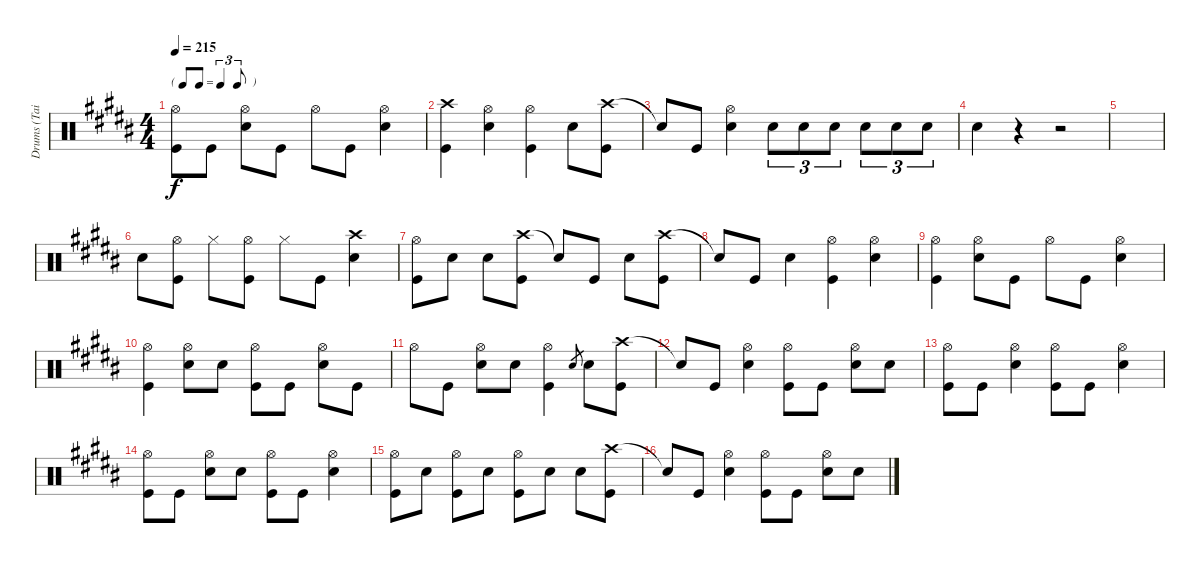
\track ("Drums (Tainaka Ritsu)" "Drums (Tai") {instrument percussion}
\staff {score}
\articulation defaults
\ts (4 4)
\tf triplet8th
\tempo 215
\clef neutral
\ks b
("Hi-Hat (open)" "Kick (hit)").8{dy f} "Kick (hit)".8 ("Hi-Hat (open)" "Snare (hit) 2").8 "Kick (hit)".8 "Hi-Hat (open)".8 "Kick (hit)".8 ("Hi-Hat (open)" "Snare (hit) 2").4 |
("Crash high (hit)" "Kick (hit)").4 ("Hi-Hat (open)" "Snare (hit) 2").4 ("Hi-Hat (open)" "Kick (hit)").4 "Snare (hit) 2".8 ("Crash high (hit)" "Kick (hit)").8 |
"Snare (hit)"{t}.8 "Kick (hit)".8 ("Hi-Hat (open)" "Snare (hit) 2").4 "Snare (hit) 2".8{tu (3 2)} "Snare (hit) 2".8{tu (3 2)} "Snare (hit) 2".8{tu (3 2)} "Snare (hit) 2".8{tu (3 2)} "Snare (hit) 2".8{tu (3 2)} "Snare (hit) 2".8{tu (3 2)} |
"Snare (hit) 2".4 r.4 r.2 |
|
"Snare (hit) 2".8 ("Hi-Hat (open)" "Kick (hit)").8 "Hi-Hat (closed)".8 ("Hi-Hat (open)" "Kick (hit)").8 "Hi-Hat (closed)".8 "Kick (hit)".8 ("Crash high (hit)" "Snare (hit) 2").4 |
("Hi-Hat (open)" "Kick (hit)").8 "Snare (hit) 2".8 "Snare (hit) 2".8 ("Crash high (hit)" "Kick (hit)").8 "Snare (hit)"{t}.8 "Kick (hit)".8 "Snare (hit) 2".8 ("Crash high (hit)" "Kick (hit)").8 |
"Snare (hit)"{t}.8 "Kick (hit)".8 "Snare (hit) 2".4 ("Hi-Hat (open)" "Kick (hit)").4 ("Hi-Hat (open)" "Snare (hit) 2").4 |
("Hi-Hat (open)" "Kick (hit)").4 ("Hi-Hat (open)" "Snare (hit) 2").8 "Kick (hit)".8 "Hi-Hat (open)".8 "Kick (hit)".8 ("Hi-Hat (open)" "Snare (hit) 2").4 |
("Hi-Hat (open)" "Kick (hit)").4 ("Hi-Hat (open)" "Snare (hit) 2").8 "Snare (hit) 2".8 ("Hi-Hat (open)" "Kick (hit)").8 "Kick (hit)".8 ("Hi-Hat (open)" "Snare (hit) 2").8 "Kick (hit)".8 |
"Hi-Hat (open)".8 "Kick (hit)".8 ("Hi-Hat (open)" "Snare (hit) 2").8 "Snare (hit) 2".8 ("Hi-Hat (open)" "Kick (hit)").4 "Snare (hit) 2".8{gr} "Snare (hit) 2".8 ("Crash high (hit)" "Kick (hit)").8 |
"Snare (hit)"{t}.8 "Kick (hit)".8 ("Hi-Hat (open)" "Snare (hit) 2").4 ("Hi-Hat (open)" "Kick (hit)").8 "Kick (hit)".8 ("Hi-Hat (open)" "Snare (hit) 2").8 "Snare (hit) 2".8 |
("Hi-Hat (open)" "Kick (hit)").8 "Kick (hit)".8 ("Hi-Hat (open)" "Snare (hit) 2").4 ("Hi-Hat (open)" "Kick (hit)").8 "Kick (hit)".8 ("Hi-Hat (open)" "Snare (hit) 2").4 |
("Hi-Hat (open)" "Kick (hit)").8 "Kick (hit)".8 ("Hi-Hat (open)" "Snare (hit) 2").8 "Snare (hit) 2".8 ("Hi-Hat (open)" "Kick (hit)").8 "Kick (hit)".8 ("Hi-Hat (open)" "Snare (hit) 2").4 |
("Hi-Hat (open)" "Kick (hit)").8 "Snare (hit) 2".8 ("Hi-Hat (open)" "Kick (hit)").8 "Snare (hit) 2".8 ("Hi-Hat (open)" "Kick (hit)").8 "Snare (hit) 2".8 "Snare (hit) 2".8 ("Crash high (hit)" "Kick (hit)").8 |
"Snare (hit)"{t}.8 "Kick (hit)".8 ("Hi-Hat (open)" "Snare (hit) 2").4 ("Hi-Hat (open)" "Kick (hit)").8 "Kick (hit)".8 ("Hi-Hat (open)" "Snare (hit) 2").8 "Snare (hit) 2".8
